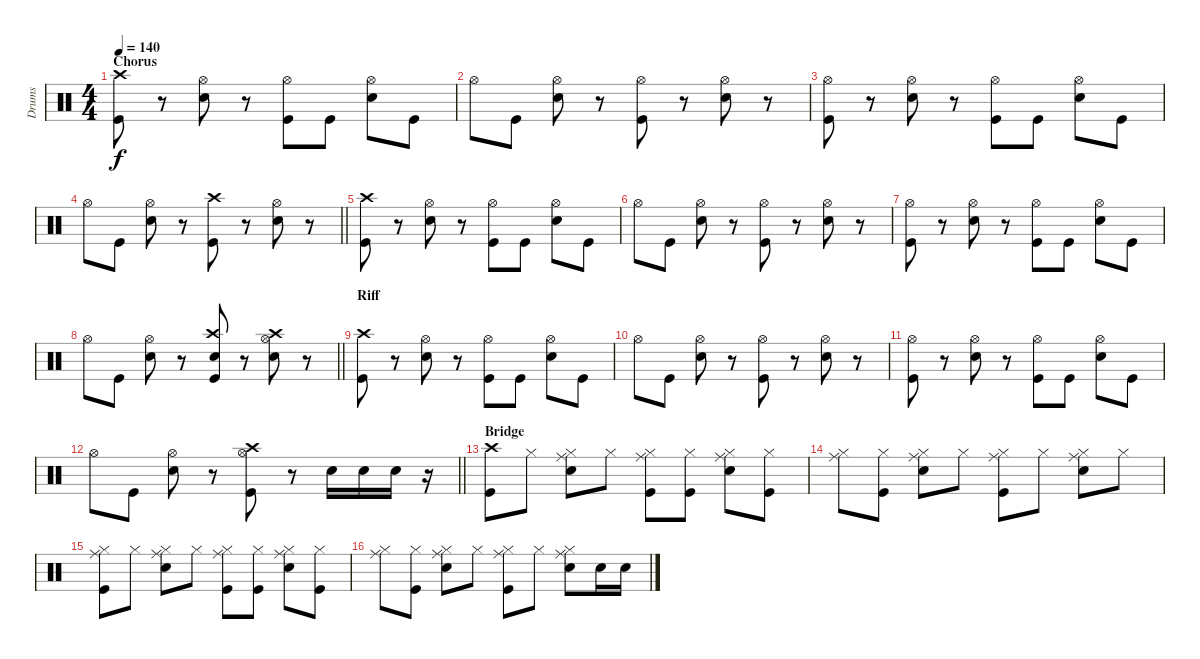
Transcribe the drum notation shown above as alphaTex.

\track ("Drums" "Drums") {instrument percussion}
\staff {score}
\articulation defaults
\ts (4 4)
\section ("" "Chorus")
\tempo 140
\clef neutral
\ks c
("Kick (hit)" "Crash high (hit)").8{dy f} r.8 ("Electric Snare (hit)" "Hi-Hat (open)").8 r.8 ("Kick (hit)" "Hi-Hat (open)").8 "Kick (hit)".8 ("Electric Snare (hit)" "Hi-Hat (open)").8 "Kick (hit)".8 |
"Hi-Hat (open)".8 "Kick (hit)".8 ("Electric Snare (hit)" "Hi-Hat (open)").8 r.8 ("Kick (hit)" "Hi-Hat (open)").8 r.8 ("Electric Snare (hit)" "Hi-Hat (open)").8 r.8 |
("Kick (hit)" "Hi-Hat (open)").8 r.8 ("Electric Snare (hit)" "Hi-Hat (open)").8 r.8 ("Kick (hit)" "Hi-Hat (open)").8 "Kick (hit)".8 ("Electric Snare (hit)" "Hi-Hat (open)").8 "Kick (hit)".8 |
\barLineRight lightlight "Hi-Hat (open)".8 "Kick (hit)".8
("Electric Snare (hit)" "Hi-Hat (open)").8 r.8 ("Kick (hit)" "Crash high (hit)").8 r.8 ("Electric Snare (hit)" "Hi-Hat (open)").8 r.8 |
("Kick (hit)" "Crash high (hit)").8 r.8 ("Electric Snare (hit)" "Hi-Hat (open)").8 r.8 ("Kick (hit)" "Hi-Hat (open)").8 "Kick (hit)".8 ("Electric Snare (hit)" "Hi-Hat (open)").8 "Kick (hit)".8 |
"Hi-Hat (open)".8 "Kick (hit)".8 ("Electric Snare (hit)" "Hi-Hat (open)").8 r.8 ("Kick (hit)" "Hi-Hat (open)").8 r.8 ("Electric Snare (hit)" "Hi-Hat (open)").8 r.8 |
("Kick (hit)" "Hi-Hat (open)").8 r.8 ("Electric Snare (hit)" "Hi-Hat (open)").8 r.8 ("Kick (hit)" "Hi-Hat (open)").8 "Kick (hit)".8 ("Electric Snare (hit)" "Hi-Hat (open)").8 "Kick (hit)".8 |
\barLineRight lightlight "Hi-Hat (open)".8 "Kick (hit)".8
("Electric Snare (hit)" "Hi-Hat (open)").8 r.8 ("Kick (hit)" "Electric Snare (hit)" "Crash high (hit)").8 r.8 ("Electric Snare (hit)" "Hi-Hat (open)" "Crash high (hit)").8 r.8 |
\section ("" "Riff")
("Kick (hit)" "Crash high (hit)").8 r.8 ("Electric Snare (hit)" "Hi-Hat (open)").8 r.8 ("Kick (hit)" "Hi-Hat (open)").8 "Kick (hit)".8 ("Electric Snare (hit)" "Hi-Hat (open)").8 "Kick (hit)".8 |
"Hi-Hat (open)".8 "Kick (hit)".8 ("Electric Snare (hit)" "Hi-Hat (open)").8 r.8 ("Kick (hit)" "Hi-Hat (open)").8 r.8 ("Electric Snare (hit)" "Hi-Hat (open)").8 r.8 |
("Kick (hit)" "Hi-Hat (open)").8 r.8 ("Electric Snare (hit)" "Hi-Hat (open)").8 r.8 ("Kick (hit)" "Hi-Hat (open)").8 "Kick (hit)".8 ("Electric Snare (hit)" "Hi-Hat (open)").8 "Kick (hit)".8 |
\barLineRight lightlight "Hi-Hat (open)".8 "Kick (hit)".8
("Electric Snare (hit)" "Hi-Hat (open)").8 r.8 ("Kick (hit)" "Hi-Hat (open)" "Crash high (hit)").8 r.8 "Electric Snare (hit)".16 "Electric Snare (hit)".16 "Electric Snare (hit)".16 r.16 |
\section ("" "Bridge")
("Kick (hit)" "Crash high (hit)").8 "Hi-Hat (closed)".8 ("Electric Snare (hit)" "Hi-Hat (closed)" "Ride (middle)").8 "Hi-Hat (closed)".8 ("Kick (hit)" "Hi-Hat (closed)" "Ride (middle)").8 ("Kick (hit)" "Hi-Hat (closed)").8 ("Electric Snare (hit)" "Hi-Hat (closed)" "Ride (middle)").8 ("Kick (hit)" "Hi-Hat (closed)").8 |
("Hi-Hat (closed)" "Ride (middle)").8 ("Kick (hit)" "Hi-Hat (closed)").8 ("Electric Snare (hit)" "Hi-Hat (closed)" "Ride (middle)").8 "Hi-Hat (closed)".8 ("Kick (hit)" "Hi-Hat (closed)" "Ride (middle)").8 "Hi-Hat (closed)".8 ("Electric Snare (hit)" "Hi-Hat (closed)" "Ride (middle)").8 "Hi-Hat (closed)".8 |
("Kick (hit)" "Hi-Hat (closed)" "Ride (middle)").8 "Hi-Hat (closed)".8 ("Electric Snare (hit)" "Hi-Hat (closed)" "Ride (middle)").8 "Hi-Hat (closed)".8 ("Kick (hit)" "Hi-Hat (closed)" "Ride (middle)").8 ("Kick (hit)" "Hi-Hat (closed)").8 ("Electric Snare (hit)" "Hi-Hat (closed)" "Ride (middle)").8 ("Kick (hit)" "Hi-Hat (closed)").8 |
("Hi-Hat (closed)" "Ride (middle)").8 ("Kick (hit)" "Hi-Hat (closed)").8 ("Electric Snare (hit)" "Hi-Hat (closed)" "Ride (middle)").8 "Hi-Hat (closed)".8 ("Kick (hit)" "Hi-Hat (closed)" "Ride (middle)").8 "Hi-Hat (closed)".8 ("Electric Snare (hit)" "Hi-Hat (closed)" "Ride (middle)").8 "Electric Snare (hit)".16 "Electric Snare (hit)".16
